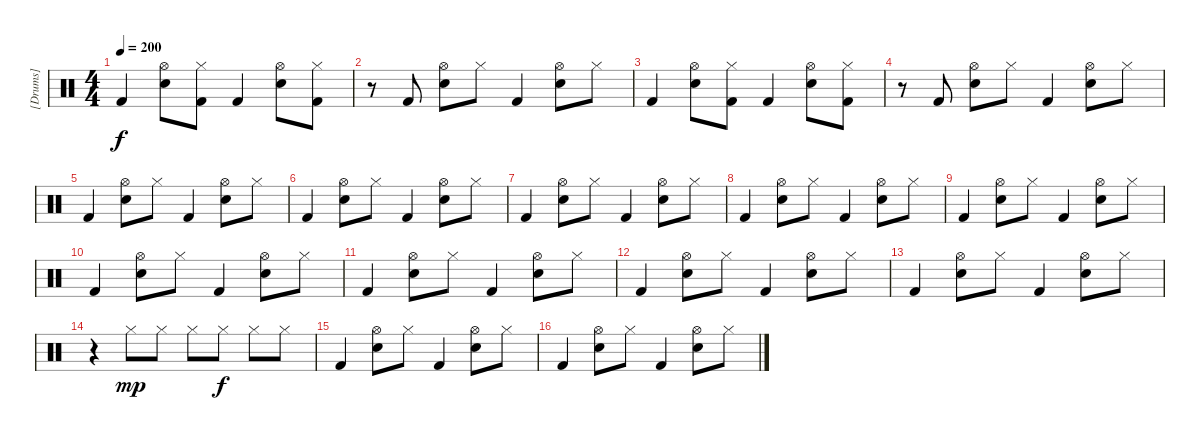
\track ("[Drums]" "[Drums]") {instrument percussion}
\staff {score}
\articulation defaults
\ts (4 4)
\tempo 200
\clef neutral
\ks c "Kick (hit) 2".4{dy f}
("Hi-Hat (open)" "Electric Snare (hit)").8 ("Hi-Hat (closed)" "Kick (hit) 2").8 "Kick (hit) 2".4 ("Hi-Hat (open)" "Electric Snare (hit)").8 ("Hi-Hat (closed)" "Kick (hit) 2").8 |
r.8 "Kick (hit) 2".8 ("Hi-Hat (open)" "Electric Snare (hit)").8 "Hi-Hat (closed)".8 "Kick (hit) 2".4 ("Hi-Hat (open)" "Electric Snare (hit)").8 "Hi-Hat (closed)".8 |
"Kick (hit) 2".4 ("Hi-Hat (open)" "Electric Snare (hit)").8 ("Hi-Hat (closed)" "Kick (hit) 2").8 "Kick (hit) 2".4 ("Hi-Hat (open)" "Electric Snare (hit)").8 ("Hi-Hat (closed)" "Kick (hit) 2").8 |
r.8 "Kick (hit) 2".8 ("Hi-Hat (open)" "Electric Snare (hit)").8 "Hi-Hat (closed)".8 "Kick (hit) 2".4 ("Hi-Hat (open)" "Electric Snare (hit)").8 "Hi-Hat (closed)".8 |
"Kick (hit) 2".4 ("Hi-Hat (open)" "Electric Snare (hit)").8 "Hi-Hat (closed)".8 "Kick (hit) 2".4 ("Hi-Hat (open)" "Electric Snare (hit)").8 "Hi-Hat (closed)".8 |
"Kick (hit) 2".4 ("Hi-Hat (open)" "Electric Snare (hit)").8 "Hi-Hat (closed)".8 "Kick (hit) 2".4 ("Hi-Hat (open)" "Electric Snare (hit)").8 "Hi-Hat (closed)".8 |
"Kick (hit) 2".4 ("Hi-Hat (open)" "Electric Snare (hit)").8 "Hi-Hat (closed)".8 "Kick (hit) 2".4 ("Hi-Hat (open)" "Electric Snare (hit)").8 "Hi-Hat (closed)".8 |
"Kick (hit) 2".4 ("Hi-Hat (open)" "Electric Snare (hit)").8 "Hi-Hat (closed)".8 "Kick (hit) 2".4 ("Hi-Hat (open)" "Electric Snare (hit)").8 "Hi-Hat (closed)".8 |
"Kick (hit) 2".4 ("Hi-Hat (open)" "Electric Snare (hit)").8 "Hi-Hat (closed)".8 "Kick (hit) 2".4 ("Hi-Hat (open)" "Electric Snare (hit)").8 "Hi-Hat (closed)".8 |
"Kick (hit) 2".4 ("Hi-Hat (open)" "Electric Snare (hit)").8 "Hi-Hat (closed)".8 "Kick (hit) 2".4 ("Hi-Hat (open)" "Electric Snare (hit)").8 "Hi-Hat (closed)".8 |
"Kick (hit) 2".4 ("Hi-Hat (open)" "Electric Snare (hit)").8 "Hi-Hat (closed)".8 "Kick (hit) 2".4 ("Hi-Hat (open)" "Electric Snare (hit)").8 "Hi-Hat (closed)".8 |
"Kick (hit) 2".4 ("Hi-Hat (open)" "Electric Snare (hit)").8 "Hi-Hat (closed)".8 "Kick (hit) 2".4 ("Hi-Hat (open)" "Electric Snare (hit)").8 "Hi-Hat (closed)".8 |
"Kick (hit) 2".4 ("Hi-Hat (open)" "Electric Snare (hit)").8 "Hi-Hat (closed)".8 "Kick (hit) 2".4 ("Hi-Hat (open)" "Electric Snare (hit)").8 "Hi-Hat (closed)".8 |
r.4 "Hi-Hat (closed)".8{dy mp} "Hi-Hat (closed)".8 "Hi-Hat (closed)".8 "Hi-Hat (closed)".8{dy f} "Hi-Hat (closed)".8 "Hi-Hat (closed)".8 |
"Kick (hit) 2".4 ("Hi-Hat (open)" "Electric Snare (hit)").8 "Hi-Hat (closed)".8 "Kick (hit) 2".4 ("Hi-Hat (open)" "Electric Snare (hit)").8 "Hi-Hat (closed)".8 |
"Kick (hit) 2".4 ("Hi-Hat (open)" "Electric Snare (hit)").8 "Hi-Hat (closed)".8 "Kick (hit) 2".4 ("Hi-Hat (open)" "Electric Snare (hit)").8 "Hi-Hat (closed)".8
